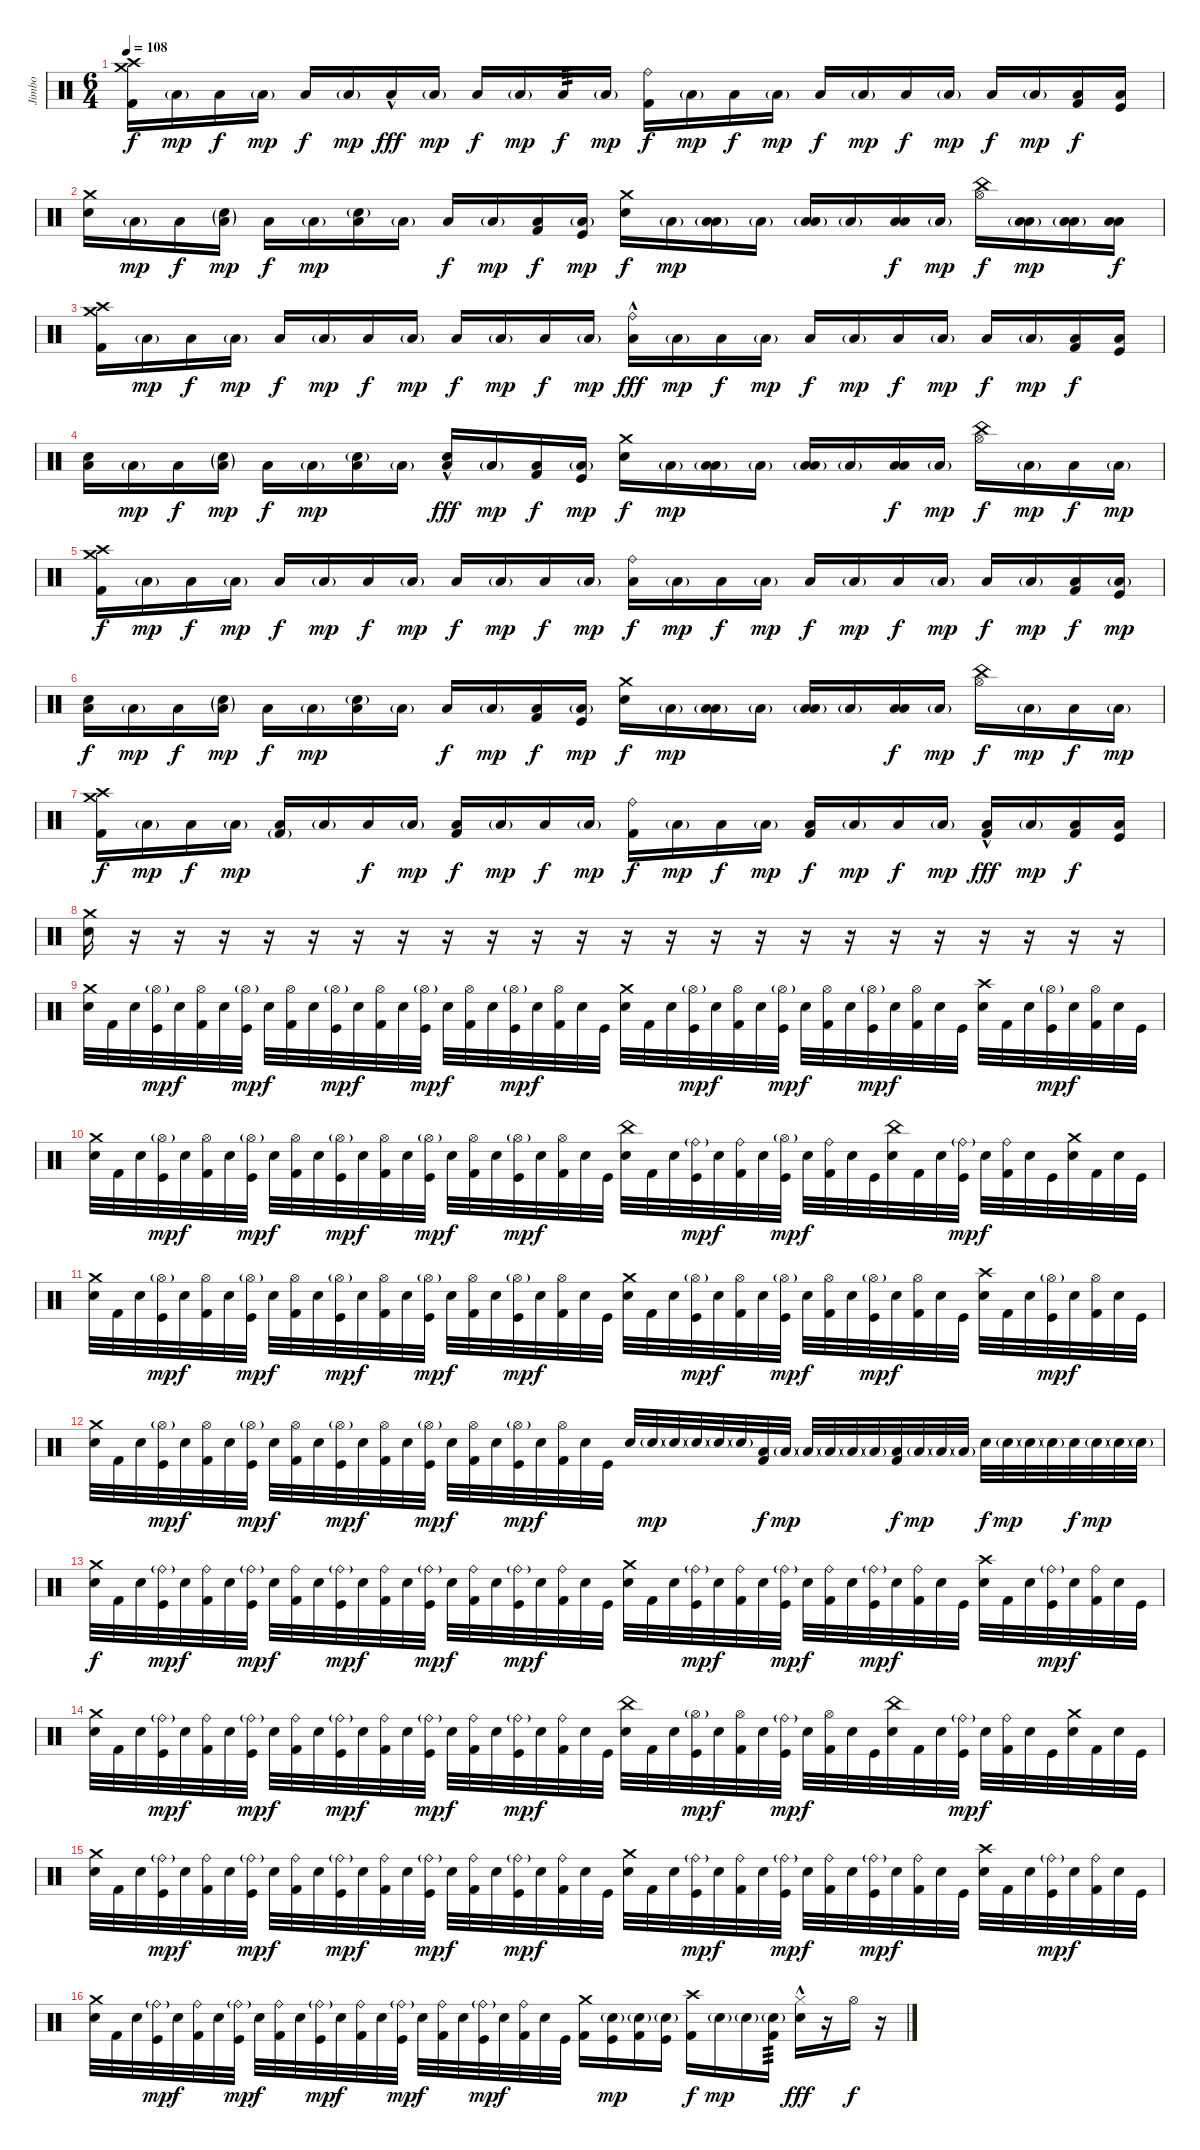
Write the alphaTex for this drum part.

\track ("Jimbo" "Jimbo") {instrument percussion}
\staff
\articulation defaults
\ts (6 4)
\tempo 108
\clef neutral
\ks c
("Kick (hit) 2" "Crash medium (hit)" "Crash high (hit)").16{dy f} "Low Floor Tom (hit)"{g}.16{dy mp} "Low Floor Tom (hit)".16{dy f} "Low Floor Tom (hit)"{g}.16{dy mp} "Low Floor Tom (hit)".16{dy f} "Low Floor Tom (hit)"{g}.16{dy mp} "Low Floor Tom (hit)"{hac}.16{dy fff} "Low Floor Tom (hit)"{g}.16{dy mp} "Low Floor Tom (hit)".16{dy f} "Low Floor Tom (hit)"{g}.16{dy mp} "Low Floor Tom (hit)".16{tp 3 dy f} "Low Floor Tom (hit)"{g}.16{dy mp} ("Ride (bell)" "Kick (hit) 2").16{dy f} "Low Floor Tom (hit)"{g}.16{dy mp} "Low Floor Tom (hit)".16{dy f} "Low Floor Tom (hit)"{g}.16{dy mp} "Low Floor Tom (hit)".16{dy f} "Low Floor Tom (hit)"{g}.16{dy mp} "Low Floor Tom (hit)".16{dy f} "Low Floor Tom (hit)"{g}.16{dy mp} "Low Floor Tom (hit)".16{dy f} "Low Floor Tom (hit)"{g}.16{dy mp} ("Kick (hit) 2" "Low Tom (hit)").16{dy f} ("Kick (hit)" "Low Floor Tom (hit)").16 |
("Electric Snare (hit)" "Crash medium (hit)").16 "Low Floor Tom (hit)"{g}.16{dy mp} "Low Floor Tom (hit)".16{dy f} ("Electric Snare (hit)"{g} "Low Floor Tom (hit)"{g}).16{dy mp} "Low Floor Tom (hit)".16{dy f} "Low Floor Tom (hit)"{g}.16{dy mp} ("Electric Snare (hit)"{g} "Low Floor Tom (hit)").16 "Low Floor Tom (hit)"{g}.16 "Low Floor Tom (hit)".16{dy f} "Low Floor Tom (hit)"{g}.16{dy mp} ("Kick (hit) 2" "Low Floor Tom (hit)").16{dy f} ("Kick (hit)" "Low Floor Tom (hit)"{g}).16{dy mp} ("Electric Snare (hit)" "Crash medium (hit)").16{dy f} "Low Floor Tom (hit)"{g}.16{dy mp} ("Low Tom (hit)"{g} "Low Floor Tom (hit)").16 "Low Floor Tom (hit)"{g}.16 ("Low Floor Tom (hit)"{g} "Low Floor Tom (hit)").16 "Low Floor Tom (hit)"{g}.16 ("Low Floor Tom (hit)" "Low Floor Tom (hit)").16{dy f} "Low Floor Tom (hit)"{g}.16{dy mp} ("Hi-Hat (open)" "China (hit)").16{dy f} ("Low Tom (hit)"{g} "Low Floor Tom (hit)"{g}).16{dy mp} ("Low Tom (hit)"{g} "Low Floor Tom (hit)").16 ("Low Tom (hit)" "Low Floor Tom (hit)").16{dy f} |
("Kick (hit) 2" "Crash medium (hit)" "Crash high (hit)").16 "Low Floor Tom (hit)"{g}.16{dy mp} "Low Floor Tom (hit)".16{dy f} "Low Floor Tom (hit)"{g}.16{dy mp} "Low Floor Tom (hit)".16{dy f} "Low Floor Tom (hit)"{g}.16{dy mp} "Low Floor Tom (hit)".16{dy f} "Low Floor Tom (hit)"{g}.16{dy mp} "Low Floor Tom (hit)".16{dy f} "Low Floor Tom (hit)"{g}.16{dy mp} "Low Floor Tom (hit)".16{dy f} "Low Floor Tom (hit)"{g}.16{dy mp} ("Ride (bell)" "Low Floor Tom (hit)"{hac}).16{dy fff} "Low Floor Tom (hit)"{g}.16{dy mp} "Low Floor Tom (hit)".16{dy f} "Low Floor Tom (hit)"{g}.16{dy mp} "Low Floor Tom (hit)".16{dy f} "Low Floor Tom (hit)"{g}.16{dy mp} "Low Floor Tom (hit)".16{dy f} "Low Floor Tom (hit)"{g}.16{dy mp} "Low Tom (hit)".16{dy f} "Low Tom (hit)"{g}.16{dy mp} ("Kick (hit) 2" "Low Floor Tom (hit)").16{dy f} ("Kick (hit)" "Low Floor Tom (hit)").16 |
("Electric Snare (hit)" "Low Floor Tom (hit)").16 "Low Floor Tom (hit)"{g}.16{dy mp} "Low Floor Tom (hit)".16{dy f} ("Electric Snare (hit)"{g} "Low Floor Tom (hit)"{g}).16{dy mp} "Low Floor Tom (hit)".16{dy f} "Low Floor Tom (hit)"{g}.16{dy mp} ("Electric Snare (hit)"{g} "Low Floor Tom (hit)").16 "Low Floor Tom (hit)"{g}.16 ("Electric Snare (hit)"{hac} "Low Floor Tom (hit)").16{dy fff} "Low Floor Tom (hit)"{g}.16{dy mp} ("Kick (hit) 2" "Low Tom (hit)").16{dy f} ("Kick (hit)" "Low Floor Tom (hit)"{g}).16{dy mp} ("Electric Snare (hit)" "Crash medium (hit)").16{dy f} "Low Floor Tom (hit)"{g}.16{dy mp} ("Low Tom (hit)"{g} "Low Floor Tom (hit)").16 "Low Floor Tom (hit)"{g}.16 ("Low Floor Tom (hit)"{g} "Low Floor Tom (hit)").16 "Low Floor Tom (hit)"{g}.16 ("Low Floor Tom (hit)" "Low Floor Tom (hit)").16{dy f} "Low Floor Tom (hit)"{g}.16{dy mp} ("Hi-Hat (open)" "China (hit)").16{dy f} "Low Floor Tom (hit)"{g}.16{dy mp} "Low Tom (hit)".16{dy f} "Low Floor Tom (hit)"{g}.16{dy mp} |
("Kick (hit) 2" "Crash medium (hit)" "Crash high (hit)").16{dy f} "Low Floor Tom (hit)"{g}.16{dy mp} "Low Floor Tom (hit)".16{dy f} "Low Floor Tom (hit)"{g}.16{dy mp} "Low Floor Tom (hit)".16{dy f} "Low Floor Tom (hit)"{g}.16{dy mp} "Low Floor Tom (hit)".16{dy f} "Low Floor Tom (hit)"{g}.16{dy mp} "Low Floor Tom (hit)".16{dy f} "Low Floor Tom (hit)"{g}.16{dy mp} "Low Floor Tom (hit)".16{dy f} "Low Floor Tom (hit)"{g}.16{dy mp} ("Ride (bell)" "Low Floor Tom (hit)").16{dy f} "Low Floor Tom (hit)"{g}.16{dy mp} "Low Floor Tom (hit)".16{dy f} "Low Floor Tom (hit)"{g}.16{dy mp} "Low Floor Tom (hit)".16{dy f} "Low Floor Tom (hit)"{g}.16{dy mp} "Low Floor Tom (hit)".16{dy f} "Low Floor Tom (hit)"{g}.16{dy mp} "Low Floor Tom (hit)".16{dy f} "Low Floor Tom (hit)"{g}.16{dy mp} ("Kick (hit) 2" "Low Tom (hit)").16{dy f} ("Kick (hit)" "Low Floor Tom (hit)"{g}).16{dy mp} |
("Electric Snare (hit)" "Low Floor Tom (hit)").16{dy f} "Low Floor Tom (hit)"{g}.16{dy mp} "Low Floor Tom (hit)".16{dy f} ("Electric Snare (hit)"{g} "Low Floor Tom (hit)"{g}).16{dy mp} "Low Floor Tom (hit)".16{dy f} "Low Floor Tom (hit)"{g}.16{dy mp} ("Electric Snare (hit)"{g} "Low Floor Tom (hit)").16 "Low Floor Tom (hit)"{g}.16 "Low Floor Tom (hit)".16{dy f} "Low Floor Tom (hit)"{g}.16{dy mp} ("Kick (hit) 2" "Low Tom (hit)").16{dy f} ("Kick (hit)" "Low Floor Tom (hit)"{g}).16{dy mp} ("Electric Snare (hit)" "Crash medium (hit)").16{dy f} "Low Floor Tom (hit)"{g}.16{dy mp} ("Low Tom (hit)"{g} "Low Floor Tom (hit)").16 "Low Floor Tom (hit)"{g}.16 ("Low Floor Tom (hit)"{g} "Low Floor Tom (hit)").16 "Low Floor Tom (hit)"{g}.16 ("Low Floor Tom (hit)" "Low Floor Tom (hit)").16{dy f} "Low Floor Tom (hit)"{g}.16{dy mp} ("Hi-Hat (open)" "China (hit)").16{dy f} "Low Floor Tom (hit)"{g}.16{dy mp} "Low Tom (hit)".16{dy f} "Low Floor Tom (hit)"{g}.16{dy mp} |
("Kick (hit) 2" "Crash medium (hit)" "Crash high (hit)").16{dy f} "Low Floor Tom (hit)"{g}.16{dy mp} "Low Floor Tom (hit)".16{dy f} "Low Floor Tom (hit)"{g}.16{dy mp} ("Kick (hit) 2"{g} "Low Floor Tom (hit)").16 "Low Floor Tom (hit)"{g}.16 "Low Floor Tom (hit)".16{dy f} "Low Floor Tom (hit)"{g}.16{dy mp} ("Kick (hit) 2" "Low Floor Tom (hit)").16{dy f} "Low Floor Tom (hit)"{g}.16{dy mp} "Low Floor Tom (hit)".16{dy f} "Low Floor Tom (hit)"{g}.16{dy mp} ("Ride (bell)" "Kick (hit) 2").16{dy f} "Low Floor Tom (hit)"{g}.16{dy mp} "Low Floor Tom (hit)".16{dy f} "Low Floor Tom (hit)"{g}.16{dy mp} ("Kick (hit) 2" "Low Floor Tom (hit)").16{dy f} "Low Floor Tom (hit)"{g}.16{dy mp} "Low Floor Tom (hit)".16{dy f} "Low Floor Tom (hit)"{g}.16{dy mp} ("Kick (hit) 2"{hac} "Low Floor Tom (hit)").16{dy fff} "Low Floor Tom (hit)"{g}.16{dy mp} ("Kick (hit) 2" "Low Tom (hit)").16{dy f} ("Kick (hit)" "Low Floor Tom (hit)").16 |
("Electric Snare (hit)" "Crash medium (hit)").16 r.16 r.16 r.16 r.16 r.16 r.16 r.16 r.16 r.16 r.16 r.16 r.16 r.16 r.16 r.16 r.16 r.16 r.16 r.16 r.16 r.16 r.16 r.16 |
("Electric Snare (hit)" "Crash medium (hit)").32 "Kick (hit) 2".32 "Electric Snare (hit)".32 ("Kick (hit)" "Hi-Hat (open)"{g}).32{dy mp} "Electric Snare (hit)".32{dy f} ("Kick (hit) 2" "Hi-Hat (open)").32 "Electric Snare (hit)".32 ("Kick (hit)" "Hi-Hat (open)"{g}).32{dy mp} "Electric Snare (hit)".32{dy f} ("Kick (hit) 2" "Hi-Hat (open)").32 "Electric Snare (hit)".32 ("Kick (hit)" "Hi-Hat (open)"{g}).32{dy mp} "Electric Snare (hit)".32{dy f} ("Kick (hit) 2" "Hi-Hat (open)").32 "Electric Snare (hit)".32 ("Kick (hit)" "Hi-Hat (open)"{g}).32{dy mp} "Electric Snare (hit)".32{dy f} ("Kick (hit) 2" "Hi-Hat (open)").32 "Electric Snare (hit)".32 ("Kick (hit)" "Hi-Hat (open)"{g}).32{dy mp} "Electric Snare (hit)".32{dy f} ("Kick (hit) 2" "Hi-Hat (open)").32 "Electric Snare (hit)".32 "Kick (hit)".32 ("Electric Snare (hit)" "Crash medium (hit)").32 "Kick (hit) 2".32 "Electric Snare (hit)".32 ("Kick (hit)" "Hi-Hat (open)"{g}).32{dy mp} "Electric Snare (hit)".32{dy f} ("Kick (hit) 2" "Hi-Hat (open)").32 "Electric Snare (hit)".32 ("Kick (hit)" "Hi-Hat (open)"{g}).32{dy mp} "Electric Snare (hit)".32{dy f} ("Kick (hit) 2" "Hi-Hat (open)").32 "Electric Snare (hit)".32 ("Kick (hit)" "Hi-Hat (open)"{g}).32{dy mp} "Electric Snare (hit)".32{dy f} ("Kick (hit) 2" "Hi-Hat (open)").32 "Electric Snare (hit)".32 "Kick (hit)".32 ("Electric Snare (hit)" "Crash high (hit)").32 "Kick (hit) 2".32 "Electric Snare (hit)".32 ("Kick (hit)" "Hi-Hat (open)"{g}).32{dy mp} "Electric Snare (hit)".32{dy f} ("Kick (hit) 2" "Hi-Hat (open)").32 "Electric Snare (hit)".32 "Kick (hit)".32 |
("Electric Snare (hit)" "Crash medium (hit)").32 "Kick (hit) 2".32 "Electric Snare (hit)".32 ("Kick (hit)" "Hi-Hat (open)"{g}).32{dy mp} "Electric Snare (hit)".32{dy f} ("Kick (hit) 2" "Hi-Hat (open)").32 "Electric Snare (hit)".32 ("Kick (hit)" "Hi-Hat (open)"{g}).32{dy mp} "Electric Snare (hit)".32{dy f} ("Kick (hit) 2" "Hi-Hat (open)").32 "Electric Snare (hit)".32 ("Kick (hit)" "Hi-Hat (open)"{g}).32{dy mp} "Electric Snare (hit)".32{dy f} ("Kick (hit) 2" "Hi-Hat (open)").32 "Electric Snare (hit)".32 ("Kick (hit)" "Hi-Hat (open)"{g}).32{dy mp} "Electric Snare (hit)".32{dy f} ("Kick (hit) 2" "Hi-Hat (open)").32 "Electric Snare (hit)".32 ("Kick (hit)" "Hi-Hat (open)"{g}).32{dy mp} "Electric Snare (hit)".32{dy f} ("Kick (hit) 2" "Hi-Hat (open)").32 "Electric Snare (hit)".32 "Kick (hit)".32 ("Electric Snare (hit)" "China (hit)").32 "Kick (hit) 2".32 "Electric Snare (hit)".32 ("Kick (hit)" "Ride (bell)"{g}).32{dy mp} "Electric Snare (hit)".32{dy f} ("Kick (hit) 2" "Ride (bell)").32 "Electric Snare (hit)".32 ("Kick (hit)" "Hi-Hat (open)"{g}).32{dy mp} "Electric Snare (hit)".32{dy f} ("Kick (hit) 2" "Ride (bell)").32 "Electric Snare (hit)".32 "Kick (hit)".32 ("Electric Snare (hit)" "China (hit)").32 "Kick (hit) 2".32 "Electric Snare (hit)".32 ("Kick (hit)" "Ride (bell)"{g}).32{dy mp} "Electric Snare (hit)".32{dy f} ("Kick (hit) 2" "Ride (bell)").32 "Electric Snare (hit)".32 "Kick (hit)".32 ("Electric Snare (hit)" "Crash medium (hit)").32 "Kick (hit) 2".32 "Electric Snare (hit)".32 "Kick (hit)".32 |
("Electric Snare (hit)" "Crash medium (hit)").32 "Kick (hit) 2".32 "Electric Snare (hit)".32 ("Kick (hit)" "Hi-Hat (open)"{g}).32{dy mp} "Electric Snare (hit)".32{dy f} ("Kick (hit) 2" "Hi-Hat (open)").32 "Electric Snare (hit)".32 ("Kick (hit)" "Hi-Hat (open)"{g}).32{dy mp} "Electric Snare (hit)".32{dy f} ("Kick (hit) 2" "Hi-Hat (open)").32 "Electric Snare (hit)".32 ("Kick (hit)" "Hi-Hat (open)"{g}).32{dy mp} "Electric Snare (hit)".32{dy f} ("Kick (hit) 2" "Hi-Hat (open)").32 "Electric Snare (hit)".32 ("Kick (hit)" "Hi-Hat (open)"{g}).32{dy mp} "Electric Snare (hit)".32{dy f} ("Kick (hit) 2" "Hi-Hat (open)").32 "Electric Snare (hit)".32 ("Kick (hit)" "Hi-Hat (open)"{g}).32{dy mp} "Electric Snare (hit)".32{dy f} ("Kick (hit) 2" "Hi-Hat (open)").32 "Electric Snare (hit)".32 "Kick (hit)".32 ("Electric Snare (hit)" "Crash medium (hit)").32 "Kick (hit) 2".32 "Electric Snare (hit)".32 ("Kick (hit)" "Hi-Hat (open)"{g}).32{dy mp} "Electric Snare (hit)".32{dy f} ("Kick (hit) 2" "Hi-Hat (open)").32 "Electric Snare (hit)".32 ("Kick (hit)" "Hi-Hat (open)"{g}).32{dy mp} "Electric Snare (hit)".32{dy f} ("Kick (hit) 2" "Hi-Hat (open)").32 "Electric Snare (hit)".32 ("Kick (hit)" "Hi-Hat (open)"{g}).32{dy mp} "Electric Snare (hit)".32{dy f} ("Kick (hit) 2" "Hi-Hat (open)").32 "Electric Snare (hit)".32 "Kick (hit)".32 ("Electric Snare (hit)" "Crash high (hit)").32 "Kick (hit) 2".32 "Electric Snare (hit)".32 ("Kick (hit)" "Hi-Hat (open)"{g}).32{dy mp} "Electric Snare (hit)".32{dy f} ("Kick (hit) 2" "Hi-Hat (open)").32 "Electric Snare (hit)".32 "Kick (hit)".32 |
("Electric Snare (hit)" "Crash medium (hit)").32 "Kick (hit) 2".32 "Electric Snare (hit)".32 ("Kick (hit)" "Hi-Hat (open)"{g}).32{dy mp} "Electric Snare (hit)".32{dy f} ("Kick (hit) 2" "Hi-Hat (open)").32 "Electric Snare (hit)".32 ("Kick (hit)" "Hi-Hat (open)"{g}).32{dy mp} "Electric Snare (hit)".32{dy f} ("Kick (hit) 2" "Hi-Hat (open)").32 "Electric Snare (hit)".32 ("Kick (hit)" "Hi-Hat (open)"{g}).32{dy mp} "Electric Snare (hit)".32{dy f} ("Kick (hit) 2" "Hi-Hat (open)").32 "Electric Snare (hit)".32 ("Kick (hit)" "Hi-Hat (open)"{g}).32{dy mp} "Electric Snare (hit)".32{dy f} ("Kick (hit) 2" "Hi-Hat (open)").32 "Electric Snare (hit)".32 ("Kick (hit)" "Hi-Hat (open)"{g}).32{dy mp} "Electric Snare (hit)".32{dy f} ("Kick (hit) 2" "Hi-Hat (open)").32 "Electric Snare (hit)".32 "Kick (hit)".32 "Electric Snare (hit)".32 "Electric Snare (hit)"{g}.32{dy mp} "Electric Snare (hit)"{g}.32 "Electric Snare (hit)"{g}.32 "Electric Snare (hit)"{g}.32 "Electric Snare (hit)"{g}.32 ("Low Tom (hit)" "Kick (hit) 2").32{dy f} "Low Tom (hit)"{g}.32{dy mp} "Low Tom (hit)"{g}.32 "Low Tom (hit)"{g}.32 "Low Tom (hit)"{g}.32 "Low Tom (hit)"{g}.32 ("Low Floor Tom (hit)" "Kick (hit) 2").32{dy f} "Low Floor Tom (hit)"{g}.32{dy mp} "Low Floor Tom (hit)"{g}.32 "Low Floor Tom (hit)"{g}.32 "Electric Snare (hit)".32{dy f} "Electric Snare (hit)"{g}.32{dy mp} "Electric Snare (hit)"{g}.32 "Electric Snare (hit)"{g}.32 "Electric Snare (hit)".32{dy f} "Electric Snare (hit)"{g}.32{dy mp} "Electric Snare (hit)"{g}.32 "Electric Snare (hit)"{g}.32 |
("Electric Snare (hit)" "Crash medium (hit)").32{dy f} "Kick (hit) 2".32 "Electric Snare (hit)".32 ("Kick (hit)" "Ride (bell)"{g}).32{dy mp} "Electric Snare (hit)".32{dy f} ("Kick (hit) 2" "Ride (bell)").32 "Electric Snare (hit)".32 ("Kick (hit)" "Ride (bell)"{g}).32{dy mp} "Electric Snare (hit)".32{dy f} ("Kick (hit) 2" "Ride (bell)").32 "Electric Snare (hit)".32 ("Kick (hit)" "Ride (bell)"{g}).32{dy mp} "Electric Snare (hit)".32{dy f} ("Kick (hit) 2" "Ride (bell)").32 "Electric Snare (hit)".32 ("Kick (hit)" "Ride (bell)"{g}).32{dy mp} "Electric Snare (hit)".32{dy f} ("Kick (hit) 2" "Ride (bell)").32 "Electric Snare (hit)".32 ("Kick (hit)" "Ride (bell)"{g}).32{dy mp} "Electric Snare (hit)".32{dy f} ("Kick (hit) 2" "Ride (bell)").32 "Electric Snare (hit)".32 "Kick (hit)".32 ("Electric Snare (hit)" "Crash medium (hit)").32 "Kick (hit) 2".32 "Electric Snare (hit)".32 ("Kick (hit)" "Ride (bell)"{g}).32{dy mp} "Electric Snare (hit)".32{dy f} ("Kick (hit) 2" "Ride (bell)").32 "Electric Snare (hit)".32 ("Kick (hit)" "Ride (bell)"{g}).32{dy mp} "Electric Snare (hit)".32{dy f} ("Kick (hit) 2" "Ride (bell)").32 "Electric Snare (hit)".32 ("Kick (hit)" "Ride (bell)"{g}).32{dy mp} "Electric Snare (hit)".32{dy f} ("Kick (hit) 2" "Ride (bell)").32 "Electric Snare (hit)".32 "Kick (hit)".32 ("Electric Snare (hit)" "Crash high (hit)").32 "Kick (hit) 2".32 "Electric Snare (hit)".32 ("Kick (hit)" "Ride (bell)"{g}).32{dy mp} "Electric Snare (hit)".32{dy f} ("Kick (hit) 2" "Ride (bell)").32 "Electric Snare (hit)".32 "Kick (hit)".32 |
("Electric Snare (hit)" "Crash medium (hit)").32 "Kick (hit) 2".32 "Electric Snare (hit)".32 ("Kick (hit)" "Ride (bell)"{g}).32{dy mp} "Electric Snare (hit)".32{dy f} ("Kick (hit) 2" "Ride (bell)").32 "Electric Snare (hit)".32 ("Kick (hit)" "Ride (bell)"{g}).32{dy mp} "Electric Snare (hit)".32{dy f} ("Kick (hit) 2" "Ride (bell)").32 "Electric Snare (hit)".32 ("Kick (hit)" "Ride (bell)"{g}).32{dy mp} "Electric Snare (hit)".32{dy f} ("Kick (hit) 2" "Ride (bell)").32 "Electric Snare (hit)".32 ("Kick (hit)" "Ride (bell)"{g}).32{dy mp} "Electric Snare (hit)".32{dy f} ("Kick (hit) 2" "Ride (bell)").32 "Electric Snare (hit)".32 ("Kick (hit)" "Ride (bell)"{g}).32{dy mp} "Electric Snare (hit)".32{dy f} ("Kick (hit) 2" "Ride (bell)").32 "Electric Snare (hit)".32 "Kick (hit)".32 ("Electric Snare (hit)" "China (hit)").32 "Kick (hit) 2".32 "Electric Snare (hit)".32 ("Kick (hit)" "Hi-Hat (open)"{g}).32{dy mp} "Electric Snare (hit)".32{dy f} ("Kick (hit) 2" "Hi-Hat (open)").32 "Electric Snare (hit)".32 ("Kick (hit)" "Ride (bell)"{g}).32{dy mp} "Electric Snare (hit)".32{dy f} ("Kick (hit) 2" "Hi-Hat (open)").32 "Electric Snare (hit)".32 "Kick (hit)".32 ("Electric Snare (hit)" "China (hit)").32 "Kick (hit) 2".32 "Electric Snare (hit)".32 ("Kick (hit)" "Ride (bell)"{g}).32{dy mp} "Electric Snare (hit)".32{dy f} ("Kick (hit) 2" "Ride (bell)").32 "Electric Snare (hit)".32 "Kick (hit)".32 ("Electric Snare (hit)" "Crash medium (hit)").32 "Kick (hit) 2".32 "Electric Snare (hit)".32 "Kick (hit)".32 |
("Electric Snare (hit)" "Crash medium (hit)").32 "Kick (hit) 2".32 "Electric Snare (hit)".32 ("Kick (hit)" "Ride (bell)"{g}).32{dy mp} "Electric Snare (hit)".32{dy f} ("Kick (hit) 2" "Ride (bell)").32 "Electric Snare (hit)".32 ("Kick (hit)" "Ride (bell)"{g}).32{dy mp} "Electric Snare (hit)".32{dy f} ("Kick (hit) 2" "Ride (bell)").32 "Electric Snare (hit)".32 ("Kick (hit)" "Ride (bell)"{g}).32{dy mp} "Electric Snare (hit)".32{dy f} ("Kick (hit) 2" "Ride (bell)").32 "Electric Snare (hit)".32 ("Kick (hit)" "Ride (bell)"{g}).32{dy mp} "Electric Snare (hit)".32{dy f} ("Kick (hit) 2" "Ride (bell)").32 "Electric Snare (hit)".32 ("Kick (hit)" "Ride (bell)"{g}).32{dy mp} "Electric Snare (hit)".32{dy f} ("Kick (hit) 2" "Ride (bell)").32 "Electric Snare (hit)".32 "Kick (hit)".32 ("Electric Snare (hit)" "Crash medium (hit)").32 "Kick (hit) 2".32 "Electric Snare (hit)".32 ("Kick (hit)" "Ride (bell)"{g}).32{dy mp} "Electric Snare (hit)".32{dy f} ("Kick (hit) 2" "Ride (bell)").32 "Electric Snare (hit)".32 ("Kick (hit)" "Ride (bell)"{g}).32{dy mp} "Electric Snare (hit)".32{dy f} ("Kick (hit) 2" "Ride (bell)").32 "Electric Snare (hit)".32 ("Kick (hit)" "Ride (bell)"{g}).32{dy mp} "Electric Snare (hit)".32{dy f} ("Kick (hit) 2" "Ride (bell)").32 "Electric Snare (hit)".32 "Kick (hit)".32 ("Electric Snare (hit)" "Crash high (hit)").32 "Kick (hit) 2".32 "Electric Snare (hit)".32 ("Kick (hit)" "Ride (bell)"{g}).32{dy mp} "Electric Snare (hit)".32{dy f} ("Kick (hit) 2" "Ride (bell)").32 "Electric Snare (hit)".32 "Kick (hit)".32 |
("Electric Snare (hit)" "Crash medium (hit)").32 "Kick (hit) 2".32 "Electric Snare (hit)".32 ("Kick (hit)" "Ride (bell)"{g}).32{dy mp} "Electric Snare (hit)".32{dy f} ("Kick (hit) 2" "Ride (bell)").32 "Electric Snare (hit)".32 ("Kick (hit)" "Ride (bell)"{g}).32{dy mp} "Electric Snare (hit)".32{dy f} ("Kick (hit) 2" "Ride (bell)").32 "Electric Snare (hit)".32 ("Kick (hit)" "Ride (bell)"{g}).32{dy mp} "Electric Snare (hit)".32{dy f} ("Kick (hit) 2" "Ride (bell)").32 "Electric Snare (hit)".32 ("Kick (hit)" "Ride (bell)"{g}).32{dy mp} "Electric Snare (hit)".32{dy f} ("Kick (hit) 2" "Ride (bell)").32 "Electric Snare (hit)".32 ("Kick (hit)" "Ride (bell)"{g}).32{dy mp} "Electric Snare (hit)".32{dy f} ("Kick (hit) 2" "Ride (bell)").32 "Electric Snare (hit)".32 "Kick (hit)".32 ("Crash medium (hit)" "Kick (hit) 2").16 ("Electric Snare (hit)"{g} "Kick (hit)").16{dy mp} ("Electric Snare (hit)"{g} "Kick (hit) 2").16 ("Electric Snare (hit)"{g} "Kick (hit)").16 ("Crash high (hit)" "Kick (hit) 2").16{dy f} "Electric Snare (hit)"{g}.16{dy mp} "Electric Snare (hit)"{g}.16 ("Electric Snare (hit)"{g} "Kick (hit) 2").16{tp 3} ("Electric Snare (hit)"{hac} "Hi-Hat (closed)").16{dy fff} r.16 "Hi-Hat (open)".16{dy f} r.16
